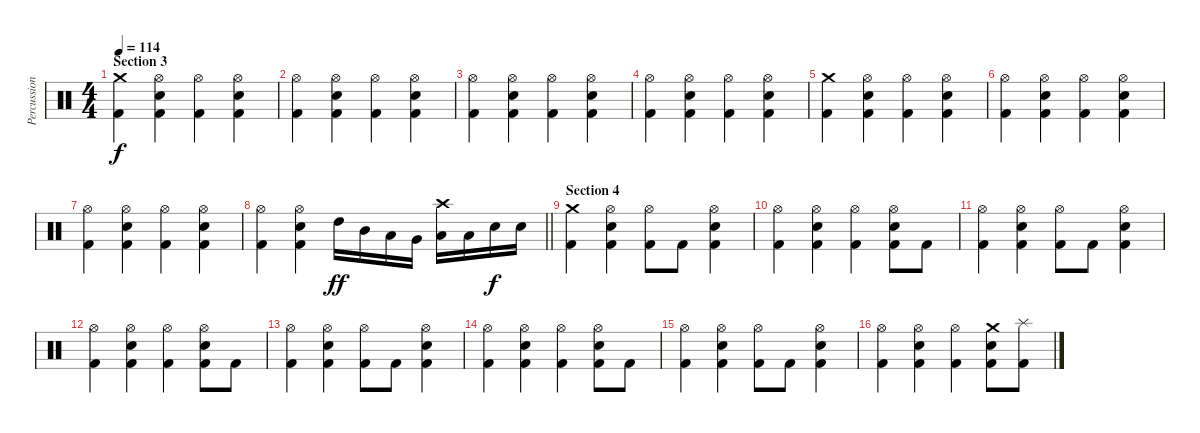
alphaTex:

\track ("Percussion" "Percussion") {instrument percussion}
\staff {score}
\articulation defaults
\ts (4 4)
\section ("" "Section 3")
\tempo 114
\clef neutral
\ks c
("Crash medium (hit)" "Kick (hit) 2").4{dy f} ("Snare (hit) 2" "Hi-Hat (open)" "Kick (hit) 2").4 ("Hi-Hat (open)" "Kick (hit) 2").4 ("Snare (hit) 2" "Hi-Hat (open)" "Kick (hit) 2").4 |
("Hi-Hat (open)" "Kick (hit) 2").4 ("Snare (hit) 2" "Hi-Hat (open)" "Kick (hit) 2").4 ("Hi-Hat (open)" "Kick (hit) 2").4 ("Snare (hit) 2" "Hi-Hat (open)" "Kick (hit) 2").4 |
("Hi-Hat (open)" "Kick (hit) 2").4 ("Snare (hit) 2" "Hi-Hat (open)" "Kick (hit) 2").4 ("Hi-Hat (open)" "Kick (hit) 2").4 ("Snare (hit) 2" "Hi-Hat (open)" "Kick (hit) 2").4 |
("Hi-Hat (open)" "Kick (hit) 2").4 ("Snare (hit) 2" "Hi-Hat (open)" "Kick (hit) 2").4 ("Hi-Hat (open)" "Kick (hit) 2").4 ("Snare (hit) 2" "Hi-Hat (open)" "Kick (hit) 2").4 |
("Crash medium (hit)" "Kick (hit) 2").4 ("Snare (hit) 2" "Hi-Hat (open)" "Kick (hit) 2").4 ("Hi-Hat (open)" "Kick (hit) 2").4 ("Snare (hit) 2" "Hi-Hat (open)" "Kick (hit) 2").4 |
("Hi-Hat (open)" "Kick (hit) 2").4 ("Snare (hit) 2" "Hi-Hat (open)" "Kick (hit) 2").4 ("Hi-Hat (open)" "Kick (hit) 2").4 ("Snare (hit) 2" "Hi-Hat (open)" "Kick (hit) 2").4 |
("Hi-Hat (open)" "Kick (hit) 2").4 ("Snare (hit) 2" "Hi-Hat (open)" "Kick (hit) 2").4 ("Hi-Hat (open)" "Kick (hit) 2").4 ("Snare (hit) 2" "Hi-Hat (open)" "Kick (hit) 2").4 |
\barLineRight lightlight
("Hi-Hat (open)" "Kick (hit) 2").4 ("Snare (hit) 2" "Hi-Hat (open)" "Kick (hit) 2").4 "High Tom (hit)".16{dy ff} "Mid Tom (hit)".16 "Low Tom (hit)".16 "Very Low Tom (hit)".16 ("Crash high (hit)" "Low Floor Tom (hit)").16 "Low Floor Tom (hit)".16 "Snare (hit) 2".16{dy f} "Snare (hit) 2".16 |
\section ("" "Section 4")
("Crash medium (hit)" "Kick (hit) 2").4 ("Snare (hit) 2" "Hi-Hat (open)" "Kick (hit) 2").4 ("Hi-Hat (open)" "Kick (hit) 2").8 "Kick (hit) 2".8 ("Snare (hit) 2" "Hi-Hat (open)" "Kick (hit) 2").4 |
("Hi-Hat (open)" "Kick (hit) 2").4 ("Snare (hit) 2" "Hi-Hat (open)" "Kick (hit) 2").4 ("Hi-Hat (open)" "Kick (hit) 2").4 ("Snare (hit) 2" "Hi-Hat (open)" "Kick (hit) 2").8 "Kick (hit) 2".8 |
("Hi-Hat (open)" "Kick (hit) 2").4 ("Snare (hit) 2" "Hi-Hat (open)" "Kick (hit) 2").4 ("Hi-Hat (open)" "Kick (hit) 2").8 "Kick (hit) 2".8 ("Snare (hit) 2" "Hi-Hat (open)" "Kick (hit) 2").4 |
("Hi-Hat (open)" "Kick (hit) 2").4 ("Snare (hit) 2" "Hi-Hat (open)" "Kick (hit) 2").4 ("Hi-Hat (open)" "Kick (hit) 2").4 ("Snare (hit) 2" "Hi-Hat (open)" "Kick (hit) 2").8 "Kick (hit) 2".8 |
("Hi-Hat (open)" "Kick (hit) 2").4 ("Snare (hit) 2" "Hi-Hat (open)" "Kick (hit) 2").4 ("Hi-Hat (open)" "Kick (hit) 2").8 "Kick (hit) 2".8 ("Snare (hit) 2" "Hi-Hat (open)" "Kick (hit) 2").4 |
("Hi-Hat (open)" "Kick (hit) 2").4 ("Snare (hit) 2" "Hi-Hat (open)" "Kick (hit) 2").4 ("Hi-Hat (open)" "Kick (hit) 2").4 ("Snare (hit) 2" "Hi-Hat (open)" "Kick (hit) 2").8 "Kick (hit) 2".8 |
("Hi-Hat (open)" "Kick (hit) 2").4 ("Snare (hit) 2" "Hi-Hat (open)" "Kick (hit) 2").4 ("Hi-Hat (open)" "Kick (hit) 2").8 "Kick (hit) 2".8 ("Snare (hit) 2" "Hi-Hat (open)" "Kick (hit) 2").4 |
("Hi-Hat (open)" "Kick (hit) 2").4 ("Snare (hit) 2" "Hi-Hat (open)" "Kick (hit) 2").4 ("Hi-Hat (open)" "Kick (hit) 2").4 ("Crash medium (hit)" "Snare (hit) 2" "Kick (hit) 2").8 ("Splash (hit)" "Kick (hit) 2").8
